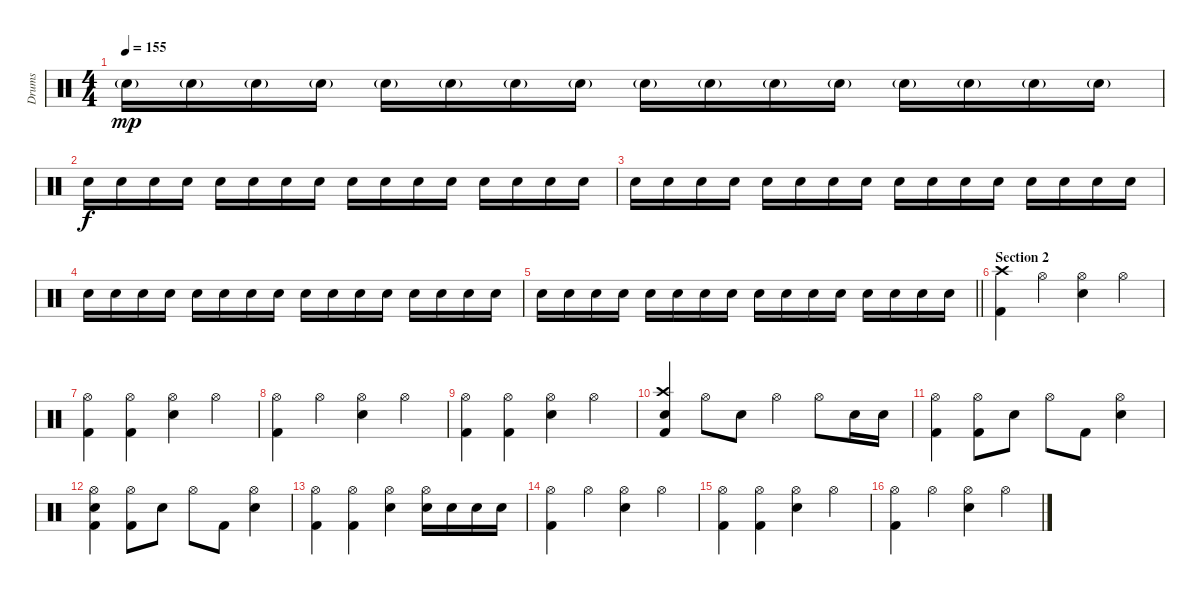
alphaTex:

\track ("Drums" "Drums") {instrument percussion}
\staff {score}
\articulation defaults
\ts (4 4)
\tempo 155
\clef neutral
\ks c "Snare (hit) 2"{g}.16{dy mp} "Snare (hit) 2"{g}.16 "Snare (hit) 2"{g}.16 "Snare (hit) 2"{g}.16 "Snare (hit) 2"{g}.16 "Snare (hit) 2"{g}.16 "Snare (hit) 2"{g}.16 "Snare (hit) 2"{g}.16 "Snare (hit) 2"{g}.16 "Snare (hit) 2"{g}.16 "Snare (hit) 2"{g}.16 "Snare (hit) 2"{g}.16 "Snare (hit) 2"{g}.16 "Snare (hit) 2"{g}.16 "Snare (hit) 2"{g}.16 "Snare (hit) 2"{g}.16
|
"Snare (hit) 2".16{dy f} "Snare (hit) 2".16 "Snare (hit) 2".16 "Snare (hit) 2".16 "Snare (hit) 2".16 "Snare (hit) 2".16 "Snare (hit) 2".16 "Snare (hit) 2".16 "Snare (hit) 2".16 "Snare (hit) 2".16 "Snare (hit) 2".16 "Snare (hit) 2".16 "Snare (hit) 2".16 "Snare (hit) 2".16 "Snare (hit) 2".16 "Snare (hit) 2".16 |
"Snare (hit) 2".16 "Snare (hit) 2".16 "Snare (hit) 2".16 "Snare (hit) 2".16 "Snare (hit) 2".16 "Snare (hit) 2".16 "Snare (hit) 2".16 "Snare (hit) 2".16 "Snare (hit) 2".16 "Snare (hit) 2".16 "Snare (hit) 2".16 "Snare (hit) 2".16 "Snare (hit) 2".16 "Snare (hit) 2".16 "Snare (hit) 2".16 "Snare (hit) 2".16 |
"Snare (hit) 2".16{volume 16} "Snare (hit) 2".16 "Snare (hit) 2".16 "Snare (hit) 2".16 "Snare (hit) 2".16 "Snare (hit) 2".16 "Snare (hit) 2".16 "Snare (hit) 2".16 "Snare (hit) 2".16 "Snare (hit) 2".16 "Snare (hit) 2".16 "Snare (hit) 2".16 "Snare (hit) 2".16 "Snare (hit) 2".16 "Snare (hit) 2".16 "Snare (hit) 2".16 |
\barLineRight lightlight "Snare (hit) 2".16 "Snare (hit) 2".16 "Snare (hit) 2".16 "Snare (hit) 2".16 "Snare (hit) 2".16 "Snare (hit) 2".16 "Snare (hit) 2".16 "Snare (hit) 2".16 "Snare (hit) 2".16 "Snare (hit) 2".16 "Snare (hit) 2".16 "Snare (hit) 2".16 "Snare (hit) 2".16 "Snare (hit) 2".16 "Snare (hit) 2".16 "Snare (hit) 2".16
|
\section ("" "Section 2")
("Crash high (hit)" "Kick (hit) 2").4 "Hi-Hat (open)".4 ("Hi-Hat (open)" "Snare (hit) 2").4 "Hi-Hat (open)".4 |
("Hi-Hat (open)" "Kick (hit) 2").4 ("Hi-Hat (open)" "Kick (hit) 2").4 ("Hi-Hat (open)" "Snare (hit) 2").4 "Hi-Hat (open)".4 |
("Hi-Hat (open)" "Kick (hit) 2").4 "Hi-Hat (open)".4 ("Hi-Hat (open)" "Snare (hit) 2").4 "Hi-Hat (open)".4 |
("Hi-Hat (open)" "Kick (hit) 2").4 ("Hi-Hat (open)" "Kick (hit) 2").4 ("Hi-Hat (open)" "Snare (hit) 2").4 "Hi-Hat (open)".4 |
("Crash high (hit)" "Snare (hit) 2" "Kick (hit) 2").4 "Hi-Hat (open)".8 "Snare (hit) 2".8 "Hi-Hat (open)".4 "Hi-Hat (open)".8 "Snare (hit) 2".16 "Snare (hit) 2".16 |
("Hi-Hat (open)" "Kick (hit) 2").4 ("Hi-Hat (open)" "Kick (hit) 2").8 "Snare (hit) 2".8 "Hi-Hat (open)".8 "Kick (hit) 2".8 ("Hi-Hat (open)" "Snare (hit) 2").4 |
("Hi-Hat (open)" "Snare (hit) 2" "Kick (hit) 2").4 ("Hi-Hat (open)" "Kick (hit) 2").8 "Snare (hit) 2".8 "Hi-Hat (open)".8 "Kick (hit) 2".8 ("Hi-Hat (open)" "Snare (hit) 2").4 |
("Hi-Hat (open)" "Kick (hit) 2").4 ("Hi-Hat (open)" "Kick (hit) 2").4 ("Hi-Hat (open)" "Snare (hit) 2").4 ("Hi-Hat (open)" "Snare (hit) 2").16 "Snare (hit) 2".16 "Snare (hit) 2".16 "Snare (hit) 2".16 |
("Hi-Hat (open)" "Kick (hit) 2").4 "Hi-Hat (open)".4 ("Hi-Hat (open)" "Snare (hit) 2").4 "Hi-Hat (open)".4 |
("Hi-Hat (open)" "Kick (hit) 2").4 ("Hi-Hat (open)" "Kick (hit) 2").4 ("Hi-Hat (open)" "Snare (hit) 2").4 "Hi-Hat (open)".4 |
("Hi-Hat (open)" "Kick (hit) 2").4 "Hi-Hat (open)".4 ("Hi-Hat (open)" "Snare (hit) 2").4 "Hi-Hat (open)".4
